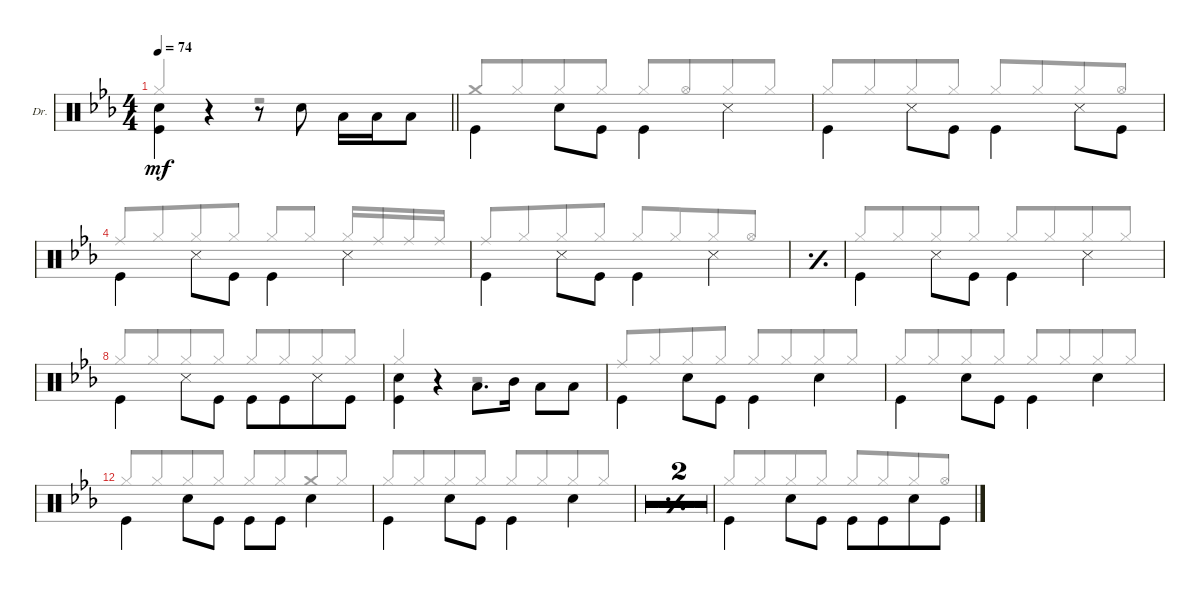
\bracketExtendMode groupsimilarinstruments
\firstSystemTrackNameOrientation horizontal
\otherSystemsTrackNameOrientation horizontal
\defaultBarNumberDisplay FirstOfSystem
\track ("Drums" "Dr.") {multiBarRest instrument percussion}
\staff {score}
\articulation defaults
\voice
\ts (4 4)
\tempo 74
\clef neutral
\barLineRight lightlight
\ks eb
("Kick (hit)" "Snare (hit) 2").4{dy mf beam invert} r.4{beam invert} r.8{beam invert} "Snare (hit) 2".8{beam invert} "Low Tom (hit)".16{beam invert} "Low Tom (hit)".16 "Low Tom (hit)".8 |
"Kick (hit)".4{beam invert} "Snare (hit) 2".8{beam invert} "Kick (hit)".8 "Kick (hit)".4{beam invert} "Snare (side stick) 3".4{beam invert} |
"Kick (hit)".4{beam invert} "Snare (side stick) 3".8{beam invert} "Kick (hit)".8 "Kick (hit)".4{beam invert} "Snare (side stick) 3".8 "Kick (hit)".8{beam invert} |
"Kick (hit)".4{beam invert} "Snare (side stick) 3".8 "Kick (hit)".8{beam invert} "Kick (hit)".4{beam invert} "Snare (side stick) 3".4{beam invert} |
"Kick (hit)".4{beam invert} "Snare (side stick) 3".8{beam invert} "Kick (hit)".8 "Kick (hit)".4{beam invert} "Snare (side stick) 3".4{beam invert} |
\simile simple
|
\simile none "Kick (hit)".4{beam invert} "Snare (side stick) 3".8{beam invert} "Kick (hit)".8 "Kick (hit)".4{beam invert} "Snare (side stick) 3".4{beam invert}
|
"Kick (hit)".4{beam invert} "Snare (side stick) 3".8{beam invert} "Kick (hit)".8 "Kick (hit)".8{beam invert} "Kick (hit)".8{beam merge} "Snare (side stick) 3".8 "Kick (hit)".8 |
("Kick (hit)" "Snare (hit) 2").4{beam invert} r.4{beam invert} "Low Tom (hit)".8{d beam invert} "Mid Tom (hit)".16 "Low Tom (hit)".8{beam invert} "Low Tom (hit)".8 |
"Kick (hit)".4{beam invert} "Snare (hit) 2".8{beam invert} "Kick (hit)".8 "Kick (hit)".4{beam invert} "Snare (hit) 2".4{beam invert} |
"Kick (hit)".4{beam invert} "Snare (hit) 2".8{beam invert} "Kick (hit)".8 "Kick (hit)".4{beam invert} "Snare (hit) 2".4{beam invert} |
"Kick (hit)".4{beam invert} "Snare (hit) 2".8 "Kick (hit)".8{beam invert} "Kick (hit)".8 "Kick (hit)".8{beam invert} "Snare (hit) 2".4{beam invert} |
"Kick (hit)".4{beam invert} "Snare (hit) 2".8 "Kick (hit)".8{beam invert} "Kick (hit)".4{beam invert} "Snare (hit) 2".4{beam invert} |
\simile simple
|
|
\simile none "Kick (hit)".4{beam invert} "Snare (hit) 2".8{beam invert} "Kick (hit)".8 "Kick (hit)".8{beam invert} "Kick (hit)".8{beam merge} "Snare (hit) 2".8 "Kick (hit)".8
\voice
\clef neutral
\ottava regular
\simile none
\barLineRight lightlight
\ks eb "Hi-Hat (closed)".4{dy mf beam invert}
r.4 r.2 |
"Crash medium (hit)".8{beam invert} "Hi-Hat (closed)".8{beam merge} "Hi-Hat (closed)".8 "Hi-Hat (closed)".8 "Hi-Hat (closed)".8{beam invert} "Hi-Hat (open)".8{beam merge} "Hi-Hat (closed)".8 "Hi-Hat (closed)".8 |
"Hi-Hat (closed)".8{beam invert} "Hi-Hat (closed)".8{beam merge} "Hi-Hat (closed)".8 "Hi-Hat (closed)".8 "Hi-Hat (closed)".8{beam invert} "Hi-Hat (closed)".8{beam merge} "Hi-Hat (closed)".8 "Hi-Hat (open)".8 |
"Ride (middle)".8{beam invert beam merge} "Hi-Hat (closed)".8{beam merge} "Hi-Hat (closed)".8 "Hi-Hat (closed)".8 "Hi-Hat (closed)".8{beam invert} "Hi-Hat (closed)".8{beam split} "Hi-Hat (closed)".16{beam invert} "Ride (middle)".16 "Ride (middle)".16 "Ride (middle)".16 |
"Ride (middle)".8{beam invert} "Hi-Hat (closed)".8{beam merge} "Hi-Hat (closed)".8 "Hi-Hat (closed)".8 "Hi-Hat (closed)".8{beam invert} "Hi-Hat (closed)".8{beam merge} "Hi-Hat (closed)".8 "Hi-Hat (open)".8 |
\simile simple
|
\simile none "Hi-Hat (closed)".8{beam invert} "Hi-Hat (closed)".8{beam merge} "Hi-Hat (closed)".8 "Hi-Hat (closed)".8 "Hi-Hat (closed)".8{beam invert} "Hi-Hat (closed)".8{beam merge} "Hi-Hat (closed)".8{beam merge} "Hi-Hat (closed)".8
|
"Hi-Hat (closed)".8{beam invert beam merge} "Hi-Hat (closed)".8{beam merge} "Hi-Hat (closed)".8 "Hi-Hat (closed)".8 "Hi-Hat (closed)".8{beam invert} "Hi-Hat (closed)".8{beam merge} "Hi-Hat (closed)".8 "Hi-Hat (closed)".8 |
"Hi-Hat (closed)".4{beam invert} r.4 r.2{beam invert} |
"Ride (middle)".8{beam invert} "Hi-Hat (closed)".8{beam merge} "Hi-Hat (closed)".8 "Hi-Hat (closed)".8 "Hi-Hat (closed)".8{beam invert} "Hi-Hat (closed)".8{beam merge} "Hi-Hat (closed)".8 "Hi-Hat (closed)".8 |
"Hi-Hat (closed)".8{beam invert} "Hi-Hat (closed)".8{beam merge} "Hi-Hat (closed)".8 "Hi-Hat (closed)".8 "Hi-Hat (closed)".8{beam invert} "Hi-Hat (closed)".8{beam merge} "Hi-Hat (closed)".8 "Hi-Hat (closed)".8 |
"Hi-Hat (closed)".8{beam invert} "Hi-Hat (closed)".8{beam merge} "Hi-Hat (closed)".8 "Hi-Hat (closed)".8 "Hi-Hat (closed)".8{beam invert} "Hi-Hat (closed)".8{beam merge} "Crash medium (hit)".8{beam merge} "Hi-Hat (closed)".8 |
"Hi-Hat (closed)".8{beam invert beam merge} "Hi-Hat (closed)".8{beam merge} "Hi-Hat (closed)".8 "Hi-Hat (closed)".8 "Hi-Hat (closed)".8{beam invert} "Hi-Hat (closed)".8{beam merge} "Hi-Hat (closed)".8 "Hi-Hat (closed)".8 |
\simile simple
|
|
\simile none "Hi-Hat (closed)".8{beam invert} "Hi-Hat (closed)".8{beam merge} "Hi-Hat (closed)".8 "Hi-Hat (closed)".8 "Hi-Hat (closed)".8{beam invert} "Hi-Hat (closed)".8{beam merge} "Hi-Hat (closed)".8 "Hi-Hat (open)".8
